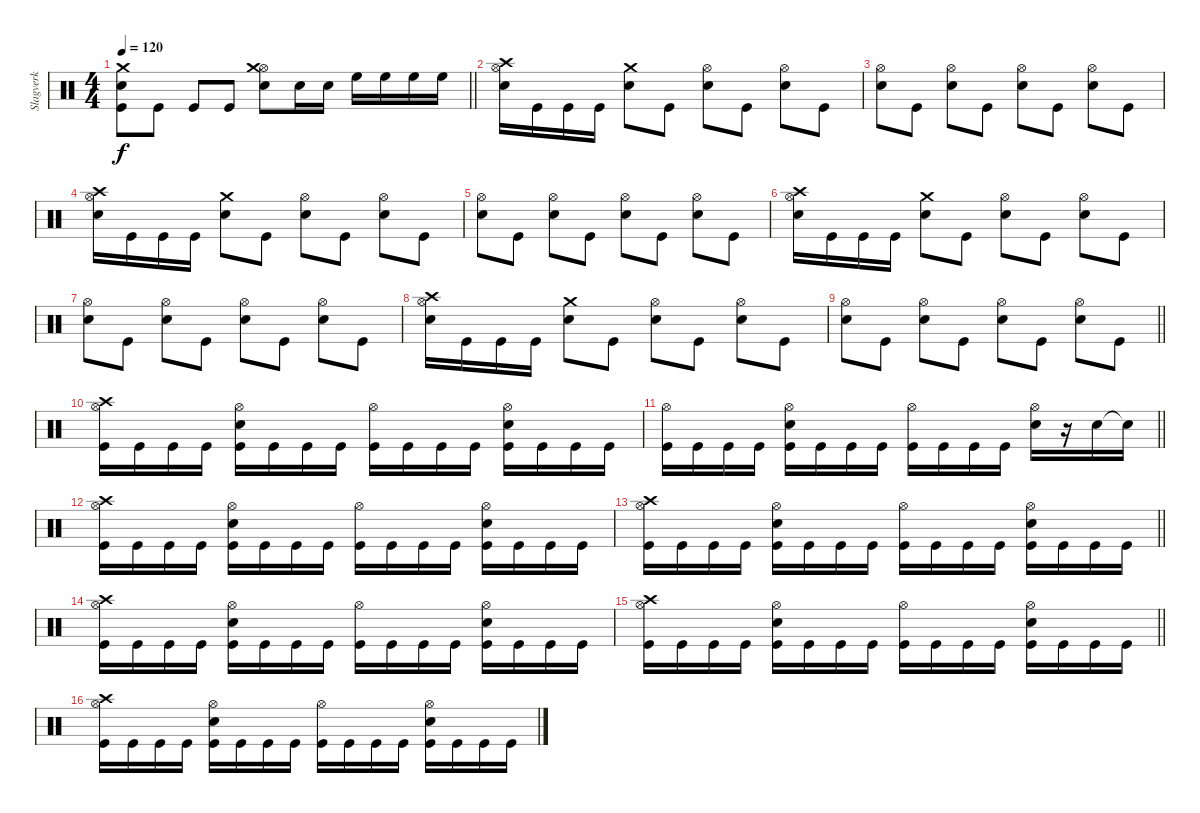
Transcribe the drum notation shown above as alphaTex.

\track ("Slagverk" "Slagverk") {instrument percussion}
\staff {score}
\articulation defaults
\ts (4 4)
\tempo 120
\clef neutral
\barLineRight lightlight
\ks c
("Crash medium (hit)" "Electric Snare (hit)" "Kick (hit)").8{dy f} "Kick (hit)".8 "Kick (hit)".8 "Kick (hit)".8 ("Hi-Hat (open)" "Crash medium (hit)" "Electric Snare (hit)").8 "Electric Snare (hit)".16 "Electric Snare (hit)".16 "High Floor Tom (hit)".16 "High Floor Tom (hit)".16 "High Floor Tom (hit)".16 "High Floor Tom (hit)".16 |
("Crash high (hit)" "Hi-Hat (open)" "Electric Snare (hit)").16 "Kick (hit)".16 "Kick (hit)".16 "Kick (hit)".16 ("Crash medium (hit)" "Electric Snare (hit)").8 "Kick (hit)".8 ("Hi-Hat (open)" "Electric Snare (hit)").8 "Kick (hit)".8 ("Hi-Hat (open)" "Electric Snare (hit)").8 "Kick (hit)".8 |
("Hi-Hat (open)" "Electric Snare (hit)").8 "Kick (hit)".8 ("Hi-Hat (open)" "Electric Snare (hit)").8 "Kick (hit)".8 ("Hi-Hat (open)" "Electric Snare (hit)").8 "Kick (hit)".8 ("Hi-Hat (open)" "Electric Snare (hit)").8 "Kick (hit)".8 |
("Crash high (hit)" "Hi-Hat (open)" "Electric Snare (hit)").16 "Kick (hit)".16 "Kick (hit)".16 "Kick (hit)".16 ("Crash medium (hit)" "Electric Snare (hit)").8 "Kick (hit)".8 ("Hi-Hat (open)" "Electric Snare (hit)").8 "Kick (hit)".8 ("Hi-Hat (open)" "Electric Snare (hit)").8 "Kick (hit)".8 |
("Hi-Hat (open)" "Electric Snare (hit)").8 "Kick (hit)".8 ("Hi-Hat (open)" "Electric Snare (hit)").8 "Kick (hit)".8 ("Hi-Hat (open)" "Electric Snare (hit)").8 "Kick (hit)".8 ("Hi-Hat (open)" "Electric Snare (hit)").8 "Kick (hit)".8 |
("Crash high (hit)" "Hi-Hat (open)" "Electric Snare (hit)").16 "Kick (hit)".16 "Kick (hit)".16 "Kick (hit)".16 ("Crash medium (hit)" "Electric Snare (hit)").8 "Kick (hit)".8 ("Hi-Hat (open)" "Electric Snare (hit)").8 "Kick (hit)".8 ("Hi-Hat (open)" "Electric Snare (hit)").8 "Kick (hit)".8 |
("Hi-Hat (open)" "Electric Snare (hit)").8 "Kick (hit)".8 ("Hi-Hat (open)" "Electric Snare (hit)").8 "Kick (hit)".8 ("Hi-Hat (open)" "Electric Snare (hit)").8 "Kick (hit)".8 ("Hi-Hat (open)" "Electric Snare (hit)").8 "Kick (hit)".8 |
("Crash high (hit)" "Hi-Hat (open)" "Electric Snare (hit)").16 "Kick (hit)".16 "Kick (hit)".16 "Kick (hit)".16 ("Crash medium (hit)" "Electric Snare (hit)").8 "Kick (hit)".8 ("Hi-Hat (open)" "Electric Snare (hit)").8 "Kick (hit)".8 ("Hi-Hat (open)" "Electric Snare (hit)").8 "Kick (hit)".8 |
\barLineRight lightlight
("Hi-Hat (open)" "Electric Snare (hit)").8 "Kick (hit)".8 ("Hi-Hat (open)" "Electric Snare (hit)").8 "Kick (hit)".8 ("Hi-Hat (open)" "Electric Snare (hit)").8 "Kick (hit)".8 ("Hi-Hat (open)" "Electric Snare (hit)").8 "Kick (hit)".8 |
("Crash high (hit)" "Hi-Hat (open)" "Kick (hit)").16 "Kick (hit)".16 "Kick (hit)".16 "Kick (hit)".16 ("Hi-Hat (open)" "Electric Snare (hit)" "Kick (hit)").16 "Kick (hit)".16 "Kick (hit)".16 "Kick (hit)".16 ("Hi-Hat (open)" "Kick (hit)").16 "Kick (hit)".16 "Kick (hit)".16 "Kick (hit)".16 ("Hi-Hat (open)" "Electric Snare (hit)" "Kick (hit)").16 "Kick (hit)".16 "Kick (hit)".16 "Kick (hit)".16 |
\barLineRight lightlight
("Hi-Hat (open)" "Kick (hit)").16 "Kick (hit)".16 "Kick (hit)".16 "Kick (hit)".16 ("Hi-Hat (open)" "Electric Snare (hit)" "Kick (hit)").16 "Kick (hit)".16 "Kick (hit)".16 "Kick (hit)".16 ("Hi-Hat (open)" "Kick (hit)").16 "Kick (hit)".16 "Kick (hit)".16 "Kick (hit)".16 ("Hi-Hat (open)" "Electric Snare (hit)").16 r.16 "Electric Snare (hit)".16 "Snare (hit)"{t}.16 |
("Crash high (hit)" "Hi-Hat (open)" "Kick (hit)").16 "Kick (hit)".16 "Kick (hit)".16 "Kick (hit)".16 ("Hi-Hat (open)" "Electric Snare (hit)" "Kick (hit)").16 "Kick (hit)".16 "Kick (hit)".16 "Kick (hit)".16 ("Hi-Hat (open)" "Kick (hit)").16 "Kick (hit)".16 "Kick (hit)".16 "Kick (hit)".16 ("Hi-Hat (open)" "Electric Snare (hit)" "Kick (hit)").16 "Kick (hit)".16 "Kick (hit)".16 "Kick (hit)".16 |
\barLineRight lightlight
("Crash high (hit)" "Hi-Hat (open)" "Kick (hit)").16 "Kick (hit)".16 "Kick (hit)".16 "Kick (hit)".16 ("Hi-Hat (open)" "Electric Snare (hit)" "Kick (hit)").16 "Kick (hit)".16 "Kick (hit)".16 "Kick (hit)".16 ("Hi-Hat (open)" "Kick (hit)").16 "Kick (hit)".16 "Kick (hit)".16 "Kick (hit)".16 ("Hi-Hat (open)" "Electric Snare (hit)" "Kick (hit)").16 "Kick (hit)".16 "Kick (hit)".16 "Kick (hit)".16 |
("Crash high (hit)" "Hi-Hat (open)" "Kick (hit)").16 "Kick (hit)".16 "Kick (hit)".16 "Kick (hit)".16 ("Hi-Hat (open)" "Electric Snare (hit)" "Kick (hit)").16 "Kick (hit)".16 "Kick (hit)".16 "Kick (hit)".16 ("Hi-Hat (open)" "Kick (hit)").16 "Kick (hit)".16 "Kick (hit)".16 "Kick (hit)".16 ("Hi-Hat (open)" "Electric Snare (hit)" "Kick (hit)").16 "Kick (hit)".16 "Kick (hit)".16 "Kick (hit)".16 |
\barLineRight lightlight
("Crash high (hit)" "Hi-Hat (open)" "Kick (hit)").16 "Kick (hit)".16 "Kick (hit)".16 "Kick (hit)".16 ("Hi-Hat (open)" "Electric Snare (hit)" "Kick (hit)").16 "Kick (hit)".16 "Kick (hit)".16 "Kick (hit)".16 ("Hi-Hat (open)" "Kick (hit)").16 "Kick (hit)".16 "Kick (hit)".16 "Kick (hit)".16 ("Hi-Hat (open)" "Electric Snare (hit)" "Kick (hit)").16 "Kick (hit)".16 "Kick (hit)".16 "Kick (hit)".16 |
("Crash high (hit)" "Hi-Hat (open)" "Kick (hit)").16 "Kick (hit)".16 "Kick (hit)".16 "Kick (hit)".16 ("Hi-Hat (open)" "Electric Snare (hit)" "Kick (hit)").16 "Kick (hit)".16 "Kick (hit)".16 "Kick (hit)".16 ("Hi-Hat (open)" "Kick (hit)").16 "Kick (hit)".16 "Kick (hit)".16 "Kick (hit)".16 ("Hi-Hat (open)" "Electric Snare (hit)" "Kick (hit)").16 "Kick (hit)".16 "Kick (hit)".16 "Kick (hit)".16
